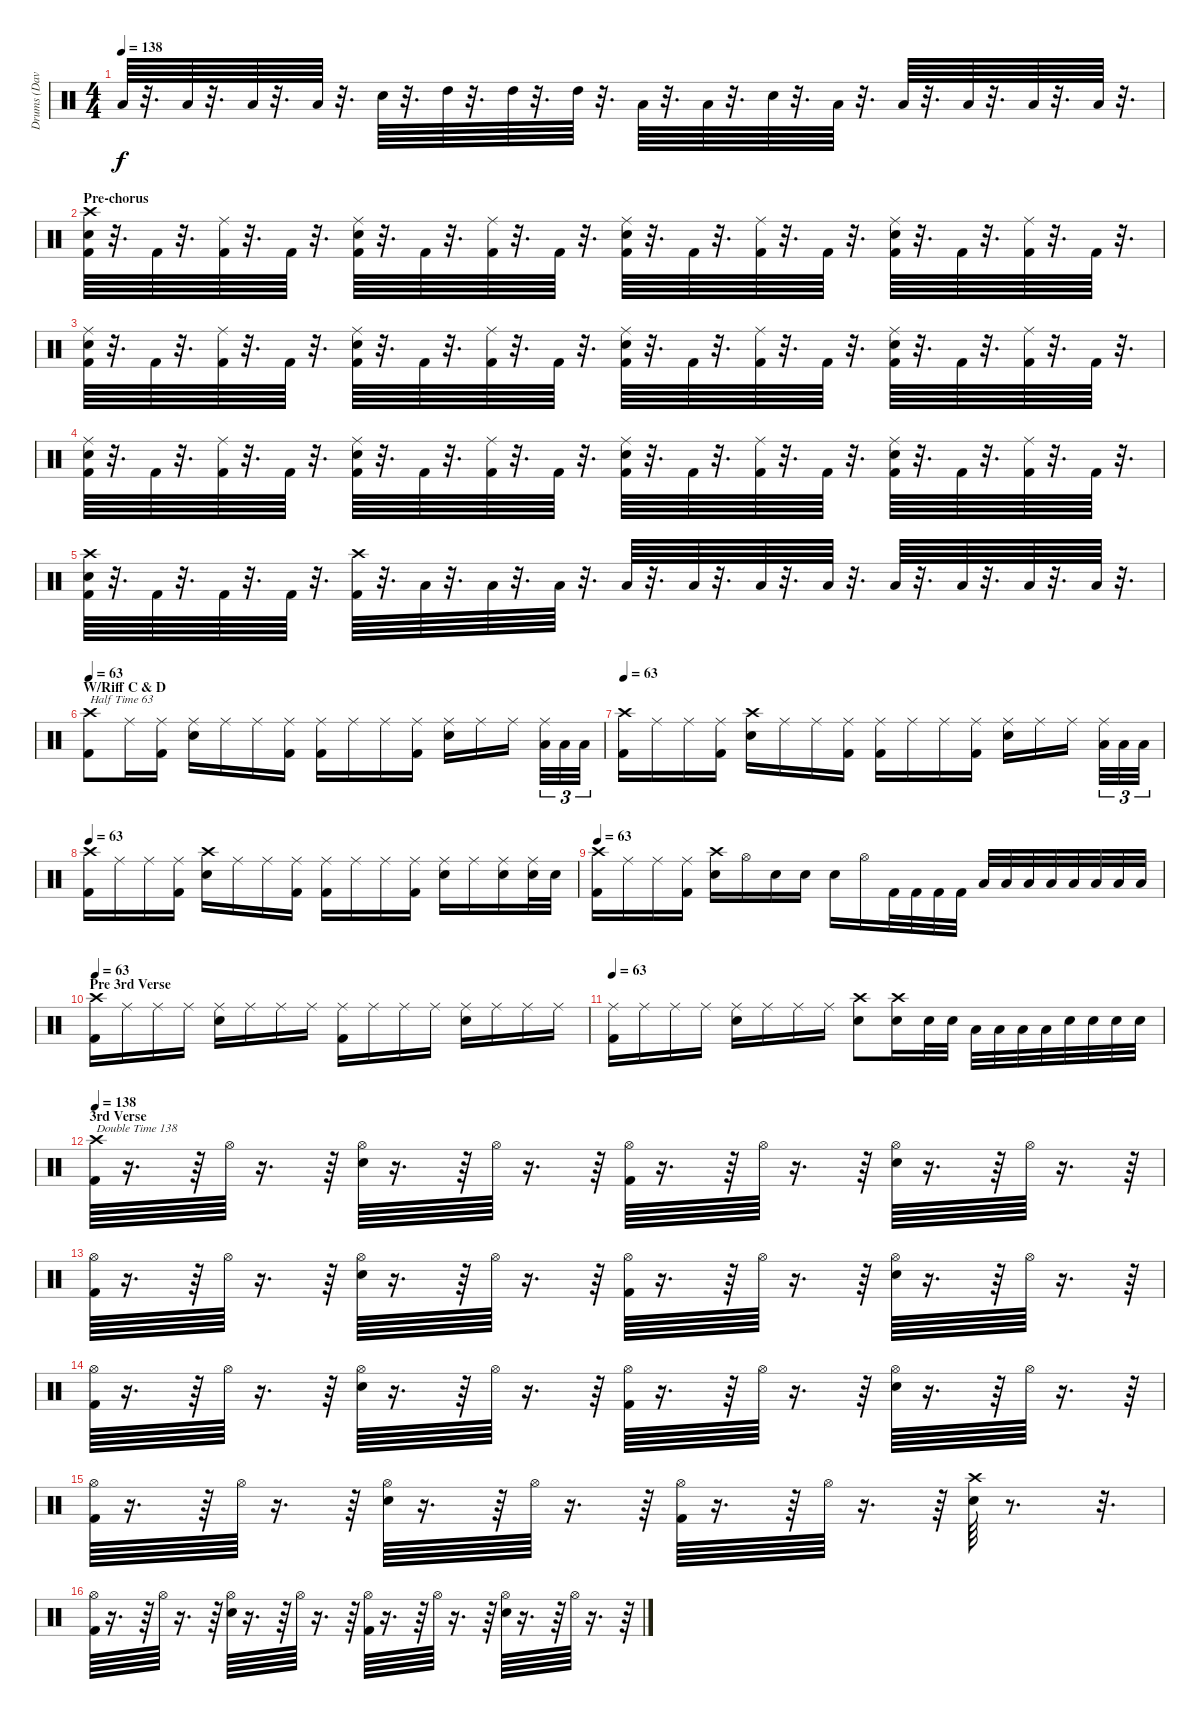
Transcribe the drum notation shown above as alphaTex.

\track ("Drums (Dave)" "Drums (Dav") {instrument percussion}
\staff {score}
\articulation defaults
\ts (4 4)
\tempo 138
\clef neutral
\ks c "Low Tom (hit)".64{dy f}
r.32{d} "Low Tom (hit)".64 r.32{d} "Low Tom (hit)".64 r.32{d} "Low Tom (hit)".64 r.32{d} "Snare (hit) 2".64 r.32{d} "High Tom (hit)".64 r.32{d} "High Tom (hit)".64 r.32{d} "High Tom (hit)".64 r.32{d} "Low Tom (hit)".64 r.32{d} "Low Tom (hit)".64 r.32{d} "Snare (hit) 2".64 r.32{d} "Low Tom (hit)".64 r.32{d} "Low Floor Tom (hit)".64 r.32{d} "Low Floor Tom (hit)".64 r.32{d} "Low Floor Tom (hit)".64 r.32{d} "Low Floor Tom (hit)".64 r.32{d} |
\section ("" "Pre-chorus")
("Kick (hit) 2" "Snare (hit) 2" "Crash high (hit)").64 r.32{d} "Kick (hit) 2".64 r.32{d} ("Kick (hit) 2" "Ride (middle)").64 r.32{d} "Kick (hit) 2".64 r.32{d} ("Kick (hit) 2" "Snare (hit) 2" "Ride (middle)").64 r.32{d} "Kick (hit) 2".64 r.32{d} ("Kick (hit) 2" "Ride (middle)").64 r.32{d} "Kick (hit) 2".64 r.32{d} ("Kick (hit) 2" "Snare (hit) 2" "Ride (middle)").64 r.32{d} "Kick (hit) 2".64 r.32{d} ("Kick (hit) 2" "Ride (middle)").64 r.32{d} "Kick (hit) 2".64 r.32{d} ("Kick (hit) 2" "Snare (hit) 2" "Ride (middle)").64 r.32{d} "Kick (hit) 2".64 r.32{d} ("Kick (hit) 2" "Ride (middle)").64 r.32{d} "Kick (hit) 2".64 r.32{d} |
("Kick (hit) 2" "Snare (hit) 2" "Ride (middle)").64 r.32{d} "Kick (hit) 2".64 r.32{d} ("Kick (hit) 2" "Ride (middle)").64 r.32{d} "Kick (hit) 2".64 r.32{d} ("Kick (hit) 2" "Snare (hit) 2" "Ride (middle)").64 r.32{d} "Kick (hit) 2".64 r.32{d} ("Kick (hit) 2" "Ride (middle)").64 r.32{d} "Kick (hit) 2".64 r.32{d} ("Kick (hit) 2" "Snare (hit) 2" "Ride (middle)").64 r.32{d} "Kick (hit) 2".64 r.32{d} ("Kick (hit) 2" "Ride (middle)").64 r.32{d} "Kick (hit) 2".64 r.32{d} ("Kick (hit) 2" "Snare (hit) 2" "Ride (middle)").64 r.32{d} "Kick (hit) 2".64 r.32{d} ("Kick (hit) 2" "Ride (middle)").64 r.32{d} "Kick (hit) 2".64 r.32{d} |
("Kick (hit) 2" "Snare (hit) 2" "Ride (middle)").64 r.32{d} "Kick (hit) 2".64 r.32{d} ("Kick (hit) 2" "Ride (middle)").64 r.32{d} "Kick (hit) 2".64 r.32{d} ("Kick (hit) 2" "Snare (hit) 2" "Ride (middle)").64 r.32{d} "Kick (hit) 2".64 r.32{d} ("Kick (hit) 2" "Ride (middle)").64 r.32{d} "Kick (hit) 2".64 r.32{d} ("Kick (hit) 2" "Snare (hit) 2" "Ride (middle)").64 r.32{d} "Kick (hit) 2".64 r.32{d} ("Kick (hit) 2" "Ride (middle)").64 r.32{d} "Kick (hit) 2".64 r.32{d} ("Kick (hit) 2" "Snare (hit) 2" "Ride (middle)").64 r.32{d} "Kick (hit) 2".64 r.32{d} ("Kick (hit) 2" "Ride (middle)").64 r.32{d} "Kick (hit) 2".64 r.32{d} |
("Crash high (hit)" "Kick (hit) 2" "Snare (hit) 2").64 r.32{d} "Kick (hit) 2".64 r.32{d} "Kick (hit) 2".64 r.32{d} "Kick (hit) 2".64 r.32{d} ("Kick (hit) 2" "Crash high (hit)").64 r.32{d} "Low Tom (hit)".64 r.32{d} "Low Tom (hit)".64 r.32{d} "Low Tom (hit)".64 r.32{d} "Low Tom (hit)".64 r.32{d} "Low Tom (hit)".64 r.32{d} "Low Tom (hit)".64 r.32{d} "Low Floor Tom (hit)".64 r.32{d} "Low Floor Tom (hit)".64 r.32{d} "Low Floor Tom (hit)".64 r.32{d} "Low Floor Tom (hit)".64 r.32{d} "Low Floor Tom (hit)".64 r.32{d} |
\section ("" "W/Riff C & D")
\tempo 63
("Crash high (hit)" "Kick (hit) 2").8{txt "Half Time 63"} "Ride (middle)".16 ("Kick (hit) 2" "Ride (middle)").16 ("Snare (hit) 2" "Ride (middle)").16 "Ride (middle)".16 "Ride (middle)".16 ("Kick (hit) 2" "Ride (middle)").16 ("Kick (hit) 2" "Ride (middle)").16 "Ride (middle)".16 "Ride (middle)".16 ("Kick (hit) 2" "Ride (middle)").16 ("Snare (hit) 2" "Ride (middle)").16 "Ride (middle)".16 "Ride (middle)".16 ("Low Tom (hit)" "Ride (middle)").32{tu (3 2)} "Low Tom (hit)".32{tu (3 2)} "Low Tom (hit)".32{tu (3 2)} |
\tempo 63
("Kick (hit) 2" "Crash high (hit)").16 "Ride (middle)".16 "Ride (middle)".16 ("Ride (middle)" "Kick (hit) 2").16 ("Snare (hit) 2" "Crash high (hit)").16 "Ride (middle)".16 "Ride (middle)".16 ("Ride (middle)" "Kick (hit) 2").16 ("Kick (hit) 2" "Ride (middle)").16 "Ride (middle)".16 "Ride (middle)".16 ("Ride (middle)" "Kick (hit) 2").16 ("Ride (middle)" "Snare (hit) 2").16 "Ride (middle)".16 "Ride (middle)".16 ("Ride (middle)" "Low Tom (hit)").32{tu (3 2)} "Low Tom (hit)".32{tu (3 2)} "Low Tom (hit)".32{tu (3 2)} |
\tempo 63
("Crash high (hit)" "Kick (hit) 2").16 "Ride (middle)".16 "Ride (middle)".16 ("Kick (hit) 2" "Ride (middle)").16 ("Snare (hit) 2" "Crash high (hit)").16 "Ride (middle)".16 "Ride (middle)".16 ("Ride (middle)" "Kick (hit) 2").16 ("Kick (hit) 2" "Ride (middle)").16 "Ride (middle)".16 "Ride (middle)".16 ("Kick (hit) 2" "Ride (middle)").16 ("Snare (hit) 2" "Ride (middle)").16 "Ride (middle)".16 ("Ride (middle)" "Snare (hit) 2").16 ("Ride (middle)" "Snare (hit) 2").32 "Snare (hit) 2".32 |
\tempo 63
("Kick (hit) 2" "Crash high (hit)").16 "Ride (middle)".16 "Ride (middle)".16 ("Ride (middle)" "Kick (hit) 2").16 ("Crash high (hit)" "Snare (hit) 2").16 "Hi-Hat (open)".16 "Snare (hit) 2".16 "Snare (hit) 2".16 "Snare (hit) 2".16 "Hi-Hat (open)".16 "Kick (hit) 2".32 "Kick (hit) 2".32 "Kick (hit) 2".32 "Kick (hit) 2".32 "Low Tom (hit)".32 "Low Tom (hit)".32 "Low Tom (hit)".32 "Low Tom (hit)".32 "Low Floor Tom (hit)".32 "Low Floor Tom (hit)".32 "Low Floor Tom (hit)".32 "Low Floor Tom (hit)".32 |
\section ("" "Pre 3rd Verse")
\tempo 63
("Kick (hit) 2" "Crash high (hit)").16 "Ride (middle)".16 "Ride (middle)".16 "Ride (middle)".16 ("Ride (middle)" "Snare (hit) 2").16 "Ride (middle)".16 "Ride (middle)".16 "Ride (middle)".16 ("Kick (hit) 2" "Ride (middle)").16 "Ride (middle)".16 "Ride (middle)".16 "Ride (middle)".16 ("Ride (middle)" "Snare (hit) 2").16 "Ride (middle)".16 "Ride (middle)".16 "Ride (middle)".16 |
\tempo 63
("Kick (hit) 2" "Ride (middle)").16 "Ride (middle)".16 "Ride (middle)".16 "Ride (middle)".16 ("Ride (middle)" "Snare (hit) 2").16 "Ride (middle)".16 "Ride (middle)".16 "Ride (middle)".16 ("Crash high (hit)" "Snare (hit) 2").8 ("Snare (hit) 2" "Crash high (hit)").16 "Snare (hit) 2".32 "Snare (hit) 2".32 "Low Tom (hit)".32 "Low Tom (hit)".32 "Low Tom (hit)".32 "Low Tom (hit)".32 "Snare (hit) 2".32 "Snare (hit) 2".32 "Snare (hit) 2".32 "Snare (hit) 2".32 |
\section ("" "3rd Verse")
\tempo 138
("Kick (hit) 2" "Crash high (hit)").64{txt "Double Time 138"} r.16{d} r.64 "Hi-Hat (open)".64 r.16{d} r.64 ("Snare (hit) 2" "Hi-Hat (open)").64 r.16{d} r.64 "Hi-Hat (open)".64 r.16{d} r.64 ("Kick (hit) 2" "Hi-Hat (open)").64 r.16{d} r.64 "Hi-Hat (open)".64 r.16{d} r.64 ("Snare (hit) 2" "Hi-Hat (open)").64 r.16{d} r.64 "Hi-Hat (open)".64 r.16{d} r.64 |
("Kick (hit) 2" "Hi-Hat (open)").64 r.16{d} r.64 "Hi-Hat (open)".64 r.16{d} r.64 ("Snare (hit) 2" "Hi-Hat (open)").64 r.16{d} r.64 "Hi-Hat (open)".64 r.16{d} r.64 ("Kick (hit) 2" "Hi-Hat (open)").64 r.16{d} r.64 "Hi-Hat (open)".64 r.16{d} r.64 ("Snare (hit) 2" "Hi-Hat (open)").64 r.16{d} r.64 "Hi-Hat (open)".64 r.16{d} r.64 |
("Kick (hit) 2" "Hi-Hat (open)").64 r.16{d} r.64 "Hi-Hat (open)".64 r.16{d} r.64 ("Snare (hit) 2" "Hi-Hat (open)").64 r.16{d} r.64 "Hi-Hat (open)".64 r.16{d} r.64 ("Kick (hit) 2" "Hi-Hat (open)").64 r.16{d} r.64 "Hi-Hat (open)".64 r.16{d} r.64 ("Snare (hit) 2" "Hi-Hat (open)").64 r.16{d} r.64 "Hi-Hat (open)".64 r.16{d} r.64 |
("Kick (hit) 2" "Hi-Hat (open)").64 r.16{d} r.64 "Hi-Hat (open)".64 r.16{d} r.64 ("Snare (hit) 2" "Hi-Hat (open)").64 r.16{d} r.64 "Hi-Hat (open)".64 r.16{d} r.64 ("Kick (hit) 2" "Hi-Hat (open)").64 r.16{d} r.64 "Hi-Hat (open)".64 r.16{d} r.64 ("Snare (hit) 2" "Crash high (hit)").64 r.8{d} r.32{d} |
("Kick (hit) 2" "Hi-Hat (open)").64 r.16{d} r.64 "Hi-Hat (open)".64 r.16{d} r.64 ("Snare (hit) 2" "Hi-Hat (open)").64 r.16{d} r.64 "Hi-Hat (open)".64 r.16{d} r.64 ("Kick (hit) 2" "Hi-Hat (open)").64 r.16{d} r.64 "Hi-Hat (open)".64 r.16{d} r.64 ("Snare (hit) 2" "Hi-Hat (open)").64 r.16{d} r.64 "Hi-Hat (open)".64 r.16{d} r.64
